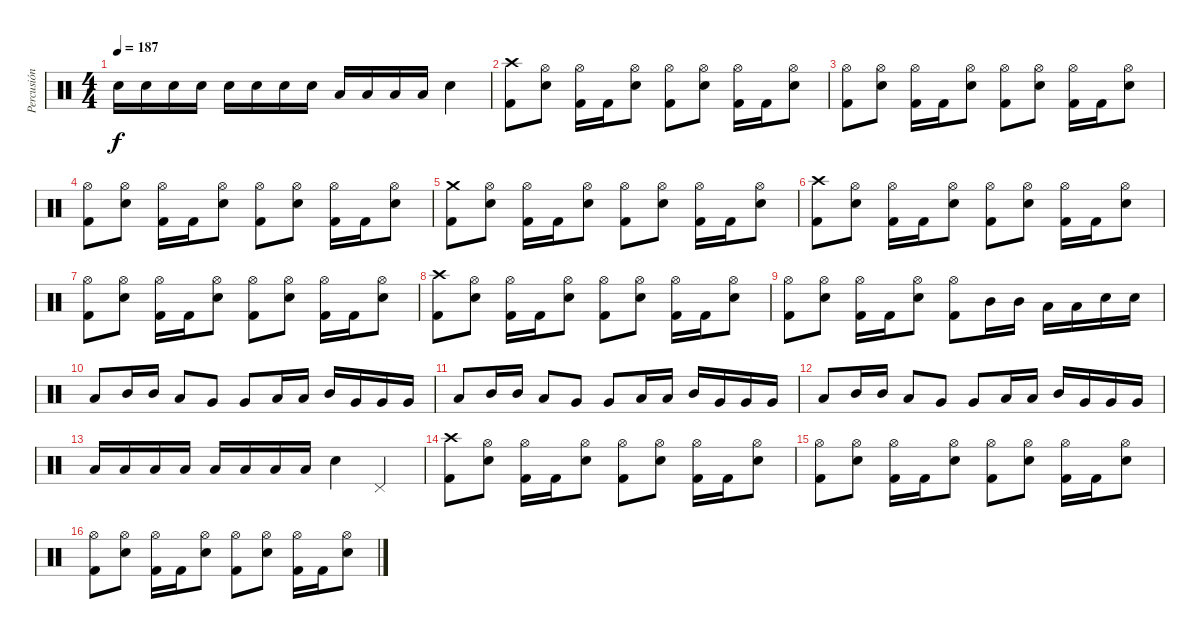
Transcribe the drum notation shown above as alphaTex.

\track ("Percusión" "Percusión") {instrument percussion}
\staff {score}
\articulation defaults
\ts (4 4)
\tempo 187
\clef neutral
\ks c "Electric Snare (hit)".16{dy f} "Electric Snare (hit)".16 "Electric Snare (hit)".16 "Electric Snare (hit)".16 "Electric Snare (hit)".16 "Electric Snare (hit)".16 "Electric Snare (hit)".16 "Electric Snare (hit)".16 "Low Tom (hit)".16 "Low Tom (hit)".16 "Low Tom (hit)".16 "Low Tom (hit)".16 "Electric Snare (hit)".4
|
("Crash high (hit)" "Kick (hit) 2").8 ("Hi-Hat (open)" "Electric Snare (hit)").8 ("Hi-Hat (open)" "Kick (hit) 2").16 "Kick (hit) 2".16 ("Hi-Hat (open)" "Electric Snare (hit)").8 ("Hi-Hat (open)" "Kick (hit) 2").8 ("Hi-Hat (open)" "Electric Snare (hit)").8 ("Hi-Hat (open)" "Kick (hit) 2").16 "Kick (hit) 2".16 ("Hi-Hat (open)" "Electric Snare (hit)").8 |
("Hi-Hat (open)" "Kick (hit) 2").8 ("Hi-Hat (open)" "Electric Snare (hit)").8 ("Hi-Hat (open)" "Kick (hit) 2").16 "Kick (hit) 2".16 ("Hi-Hat (open)" "Electric Snare (hit)").8 ("Hi-Hat (open)" "Kick (hit) 2").8 ("Hi-Hat (open)" "Electric Snare (hit)").8 ("Hi-Hat (open)" "Kick (hit) 2").16 "Kick (hit) 2".16 ("Hi-Hat (open)" "Electric Snare (hit)").8 |
("Hi-Hat (open)" "Kick (hit) 2").8 ("Hi-Hat (open)" "Electric Snare (hit)").8 ("Hi-Hat (open)" "Kick (hit) 2").16 "Kick (hit) 2".16 ("Hi-Hat (open)" "Electric Snare (hit)").8 ("Hi-Hat (open)" "Kick (hit) 2").8 ("Hi-Hat (open)" "Electric Snare (hit)").8 ("Hi-Hat (open)" "Kick (hit) 2").16 "Kick (hit) 2".16 ("Hi-Hat (open)" "Electric Snare (hit)").8 |
("Crash medium (hit)" "Kick (hit) 2").8 ("Hi-Hat (open)" "Electric Snare (hit)").8 ("Hi-Hat (open)" "Kick (hit) 2").16 "Kick (hit) 2".16 ("Hi-Hat (open)" "Electric Snare (hit)").8 ("Hi-Hat (open)" "Kick (hit) 2").8 ("Hi-Hat (open)" "Electric Snare (hit)").8 ("Hi-Hat (open)" "Kick (hit) 2").16 "Kick (hit) 2".16 ("Hi-Hat (open)" "Electric Snare (hit)").8 |
("Crash high (hit)" "Kick (hit) 2").8 ("Hi-Hat (open)" "Electric Snare (hit)").8 ("Hi-Hat (open)" "Kick (hit) 2").16 "Kick (hit) 2".16 ("Hi-Hat (open)" "Electric Snare (hit)").8 ("Hi-Hat (open)" "Kick (hit) 2").8 ("Hi-Hat (open)" "Electric Snare (hit)").8 ("Hi-Hat (open)" "Kick (hit) 2").16 "Kick (hit) 2".16 ("Hi-Hat (open)" "Electric Snare (hit)").8 |
("Hi-Hat (open)" "Kick (hit) 2").8 ("Hi-Hat (open)" "Electric Snare (hit)").8 ("Hi-Hat (open)" "Kick (hit) 2").16 "Kick (hit) 2".16 ("Hi-Hat (open)" "Electric Snare (hit)").8 ("Hi-Hat (open)" "Kick (hit) 2").8 ("Hi-Hat (open)" "Electric Snare (hit)").8 ("Hi-Hat (open)" "Kick (hit) 2").16 "Kick (hit) 2".16 ("Hi-Hat (open)" "Electric Snare (hit)").8 |
("Crash high (hit)" "Kick (hit) 2").8 ("Hi-Hat (open)" "Electric Snare (hit)").8 ("Hi-Hat (open)" "Kick (hit) 2").16 "Kick (hit) 2".16 ("Hi-Hat (open)" "Electric Snare (hit)").8 ("Hi-Hat (open)" "Kick (hit) 2").8 ("Hi-Hat (open)" "Electric Snare (hit)").8 ("Hi-Hat (open)" "Kick (hit) 2").16 "Kick (hit) 2".16 ("Hi-Hat (open)" "Electric Snare (hit)").8 |
("Hi-Hat (open)" "Kick (hit) 2").8 ("Hi-Hat (open)" "Electric Snare (hit)").8 ("Hi-Hat (open)" "Kick (hit) 2").16 "Kick (hit) 2".16 ("Hi-Hat (open)" "Electric Snare (hit)").8 ("Hi-Hat (open)" "Kick (hit) 2").8 "Mid Tom (hit)".16 "Mid Tom (hit)".16 "Low Tom (hit)".16 "Low Tom (hit)".16 "Electric Snare (hit)".16 "Electric Snare (hit)".16 |
"Low Tom (hit)".8 "Mid Tom (hit)".16 "Mid Tom (hit)".16 "Low Tom (hit)".8 "Very Low Tom (hit)".8 "Very Low Tom (hit)".8 "Low Tom (hit)".16 "Low Tom (hit)".16 "Mid Tom (hit)".16 "Very Low Tom (hit)".16 "Very Low Tom (hit)".16 "Very Low Tom (hit)".16 |
"Low Tom (hit)".8 "Mid Tom (hit)".16 "Mid Tom (hit)".16 "Low Tom (hit)".8 "Very Low Tom (hit)".8 "Very Low Tom (hit)".8 "Low Tom (hit)".16 "Low Tom (hit)".16 "Mid Tom (hit)".16 "Very Low Tom (hit)".16 "Very Low Tom (hit)".16 "Very Low Tom (hit)".16 |
"Low Tom (hit)".8 "Mid Tom (hit)".16 "Mid Tom (hit)".16 "Low Tom (hit)".8 "Very Low Tom (hit)".8 "Very Low Tom (hit)".8 "Low Tom (hit)".16 "Low Tom (hit)".16 "Mid Tom (hit)".16 "Very Low Tom (hit)".16 "Very Low Tom (hit)".16 "Very Low Tom (hit)".16 |
"Low Tom (hit)".16 "Low Tom (hit)".16 "Low Tom (hit)".16 "Low Tom (hit)".16 "Low Tom (hit)".16 "Low Tom (hit)".16 "Low Tom (hit)".16 "Low Tom (hit)".16 "Electric Snare (hit)".4 "Pedal Hi-Hat (hit)".4 |
("Crash high (hit)" "Kick (hit) 2").8 ("Hi-Hat (open)" "Electric Snare (hit)").8 ("Hi-Hat (open)" "Kick (hit) 2").16 "Kick (hit) 2".16 ("Hi-Hat (open)" "Electric Snare (hit)").8 ("Hi-Hat (open)" "Kick (hit) 2").8 ("Hi-Hat (open)" "Electric Snare (hit)").8 ("Hi-Hat (open)" "Kick (hit) 2").16 "Kick (hit) 2".16 ("Hi-Hat (open)" "Electric Snare (hit)").8 |
("Hi-Hat (open)" "Kick (hit) 2").8 ("Hi-Hat (open)" "Electric Snare (hit)").8 ("Hi-Hat (open)" "Kick (hit) 2").16 "Kick (hit) 2".16 ("Hi-Hat (open)" "Electric Snare (hit)").8 ("Hi-Hat (open)" "Kick (hit) 2").8 ("Hi-Hat (open)" "Electric Snare (hit)").8 ("Hi-Hat (open)" "Kick (hit) 2").16 "Kick (hit) 2".16 ("Hi-Hat (open)" "Electric Snare (hit)").8 |
("Hi-Hat (open)" "Kick (hit) 2").8 ("Hi-Hat (open)" "Electric Snare (hit)").8 ("Hi-Hat (open)" "Kick (hit) 2").16 "Kick (hit) 2".16 ("Hi-Hat (open)" "Electric Snare (hit)").8 ("Hi-Hat (open)" "Kick (hit) 2").8 ("Hi-Hat (open)" "Electric Snare (hit)").8 ("Hi-Hat (open)" "Kick (hit) 2").16 "Kick (hit) 2".16 ("Hi-Hat (open)" "Electric Snare (hit)").8
